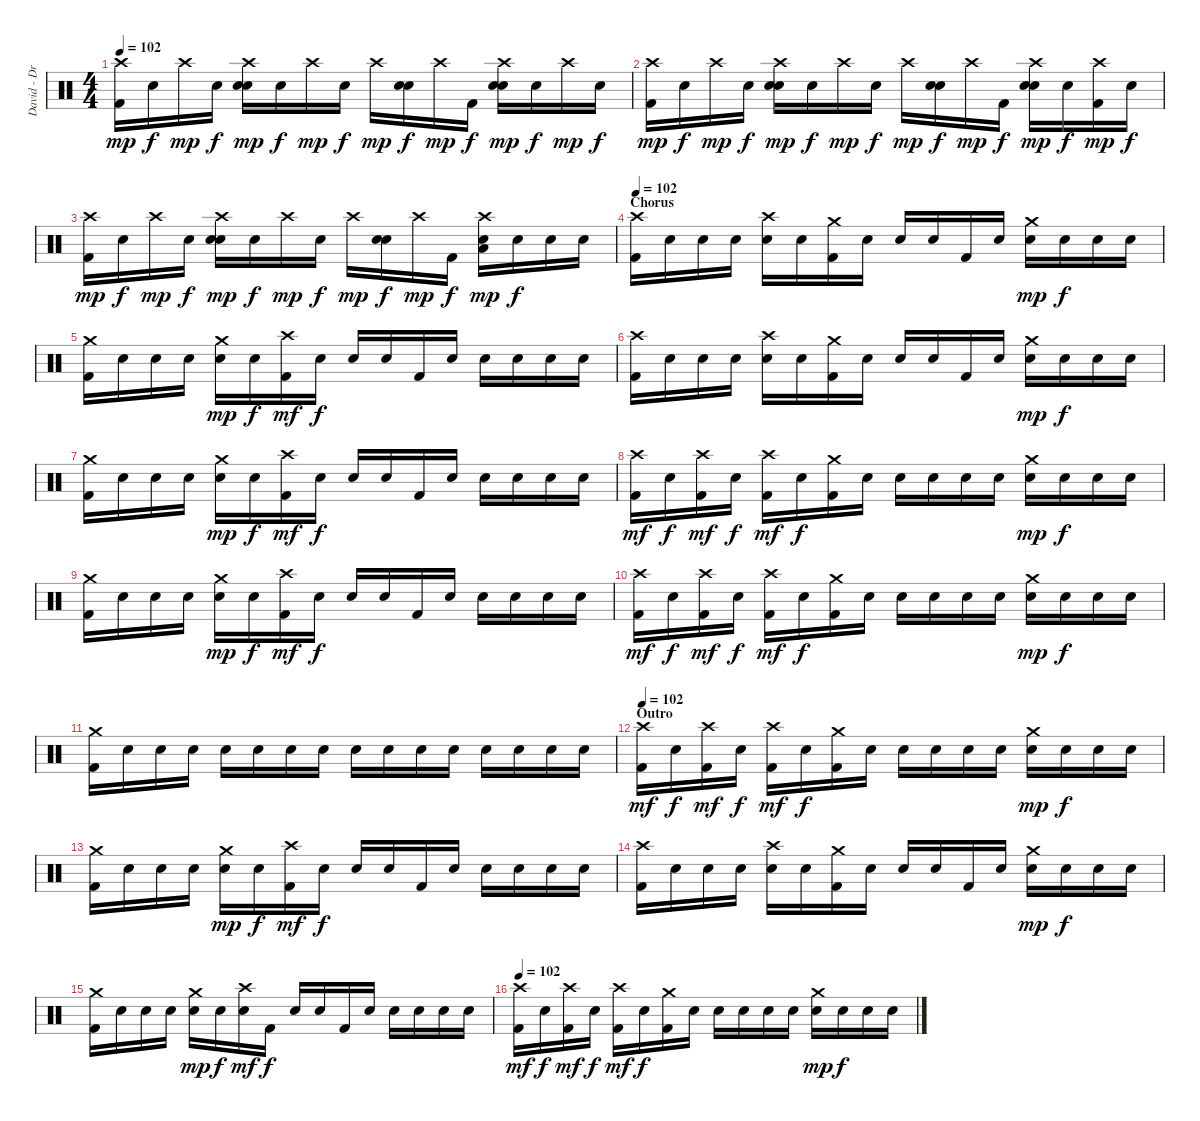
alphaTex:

\track ("David - Drums" "David - Dr") {instrument percussion}
\staff {score}
\articulation defaults
\ts (4 4)
\tempo 102
\clef neutral
\ks c
("Crash high (hit)" "Kick (hit) 2").16{dy mp} "Snare (hit)".16{dy f} "Crash high (hit)".16{dy mp} "Snare (hit)".16{dy f} ("Crash high (hit)" "Electric Snare (hit)" "Snare (hit) 2").16{dy mp} "Snare (hit)".16{dy f} "Crash high (hit)".16{dy mp} "Snare (hit)".16{dy f} "Crash high (hit)".16{dy mp} ("Electric Snare (hit)" "Snare (hit) 2").16{dy f} "Crash high (hit)".16{dy mp} "Kick (hit) 2".16{dy f} ("Crash high (hit)" "Electric Snare (hit)" "Snare (hit) 2").16{dy mp} "Snare (hit)".16{dy f} "Crash high (hit)".16{dy mp} "Snare (hit)".16{dy f} |
("Crash high (hit)" "Kick (hit) 2").16{dy mp} "Snare (hit)".16{dy f} "Crash high (hit)".16{dy mp} "Snare (hit)".16{dy f} ("Crash high (hit)" "Electric Snare (hit)" "Snare (hit) 2").16{dy mp} "Snare (hit)".16{dy f} "Crash high (hit)".16{dy mp} "Snare (hit)".16{dy f} "Crash high (hit)".16{dy mp} ("Electric Snare (hit)" "Snare (hit) 2").16{dy f} "Crash high (hit)".16{dy mp} "Kick (hit) 2".16{dy f} ("Crash high (hit)" "Electric Snare (hit)" "Snare (hit) 2").16{dy mp} "Snare (hit)".16{dy f} ("Crash high (hit)" "Kick (hit) 2").16{dy mp} "Snare (hit)".16{dy f} |
("Crash high (hit)" "Kick (hit) 2").16{dy mp} "Snare (hit)".16{dy f} "Crash high (hit)".16{dy mp} "Snare (hit)".16{dy f} ("Crash high (hit)" "Electric Snare (hit)" "Snare (hit) 2").16{dy mp} "Snare (hit)".16{dy f} "Crash high (hit)".16{dy mp} "Snare (hit)".16{dy f} "Crash high (hit)".16{dy mp} ("Electric Snare (hit)" "Snare (hit) 2").16{dy f} "Crash high (hit)".16{dy mp} "Kick (hit) 2".16{dy f} ("Crash high (hit)" "Low Floor Tom (hit)" "Snare (hit) 2").16{dy mp} "Snare (hit)".16{dy f} "Snare (hit)".16 "Snare (hit)".16 |
\section ("" "Chorus")
\tempo 102
("Crash high (hit)" "Kick (hit) 2").16{volume 16 balance 8} "Snare (hit)".16 "Snare (hit)".16 "Snare (hit)".16 ("Crash high (hit)" "Electric Snare (hit)").16 "Snare (hit)".16 ("Crash medium (hit)" "Kick (hit) 2").16 "Snare (hit)".16 "Snare (hit)".16 "Snare (hit)".16 "Kick (hit) 2".16 "Snare (hit)".16 ("Crash medium (hit)" "Electric Snare (hit)").16{dy mp} "Snare (hit)".16{dy f} "Snare (hit)".16 "Snare (hit)".16 |
("Crash medium (hit)" "Kick (hit) 2").16 "Snare (hit)".16 "Snare (hit)".16 "Snare (hit)".16 ("Crash medium (hit)" "Electric Snare (hit)").16{dy mp} "Snare (hit)".16{dy f} ("Crash high (hit)" "Kick (hit) 2").16{dy mf} "Snare (hit)".16{dy f} "Snare (hit)".16 "Snare (hit)".16 "Kick (hit) 2".16 "Snare (hit)".16 "Electric Snare (hit)".16 "Snare (hit)".16 "Snare (hit)".16 "Snare (hit)".16 |
("Crash high (hit)" "Kick (hit) 2").16 "Snare (hit)".16 "Snare (hit)".16 "Snare (hit)".16 ("Crash high (hit)" "Electric Snare (hit)").16 "Snare (hit)".16 ("Crash medium (hit)" "Kick (hit) 2").16 "Snare (hit)".16 "Snare (hit)".16 "Snare (hit)".16 "Kick (hit) 2".16 "Snare (hit)".16 ("Crash medium (hit)" "Electric Snare (hit)").16{dy mp} "Snare (hit)".16{dy f} "Snare (hit)".16 "Snare (hit)".16 |
("Crash medium (hit)" "Kick (hit) 2").16 "Snare (hit)".16 "Snare (hit)".16 "Snare (hit)".16 ("Crash medium (hit)" "Electric Snare (hit)").16{dy mp} "Snare (hit)".16{dy f} ("Crash high (hit)" "Kick (hit) 2").16{dy mf} "Snare (hit)".16{dy f} "Snare (hit)".16 "Snare (hit)".16 "Kick (hit) 2".16 "Snare (hit)".16 "Electric Snare (hit)".16 "Snare (hit)".16 "Snare (hit)".16 "Snare (hit)".16 |
("Crash high (hit)" "Kick (hit) 2").16{dy mf} "Snare (hit)".16{dy f} ("Crash high (hit)" "Kick (hit) 2").16{dy mf} "Snare (hit)".16{dy f} ("Crash high (hit)" "Kick (hit) 2").16{dy mf} "Snare (hit)".16{dy f} ("Crash medium (hit)" "Kick (hit) 2").16 "Snare (hit)".16 "Snare (hit)".16 "Snare (hit)".16 "Snare (hit)".16 "Snare (hit)".16 ("Crash medium (hit)" "Electric Snare (hit)").16{dy mp} "Snare (hit)".16{dy f} "Snare (hit)".16 "Snare (hit)".16 |
("Crash medium (hit)" "Kick (hit) 2").16 "Snare (hit)".16 "Snare (hit)".16 "Snare (hit)".16 ("Crash medium (hit)" "Electric Snare (hit)").16{dy mp} "Snare (hit)".16{dy f} ("Crash high (hit)" "Kick (hit) 2").16{dy mf} "Snare (hit)".16{dy f} "Snare (hit)".16 "Snare (hit)".16 "Kick (hit) 2".16 "Snare (hit)".16 "Electric Snare (hit)".16 "Snare (hit)".16 "Snare (hit)".16 "Snare (hit)".16 |
("Crash high (hit)" "Kick (hit) 2").16{dy mf} "Snare (hit)".16{dy f} ("Crash high (hit)" "Kick (hit) 2").16{dy mf} "Snare (hit)".16{dy f} ("Crash high (hit)" "Kick (hit) 2").16{dy mf} "Snare (hit)".16{dy f} ("Crash medium (hit)" "Kick (hit) 2").16 "Snare (hit)".16 "Snare (hit)".16 "Snare (hit)".16 "Snare (hit)".16 "Snare (hit)".16 ("Crash medium (hit)" "Electric Snare (hit)").16{dy mp} "Snare (hit)".16{dy f} "Snare (hit)".16 "Snare (hit)".16 |
("Crash medium (hit)" "Kick (hit) 2").16 "Snare (hit)".16 "Snare (hit)".16 "Snare (hit)".16 "Snare (hit)".16 "Snare (hit)".16 "Snare (hit)".16 "Snare (hit)".16 "Snare (hit)".16 "Snare (hit)".16 "Snare (hit)".16 "Snare (hit)".16 "Snare (hit)".16 "Snare (hit)".16 "Snare (hit)".16 "Snare (hit)".16 |
\section ("" "Outro")
\tempo 102
("Crash high (hit)" "Kick (hit) 2").16{dy mf volume 16 balance 8} "Snare (hit)".16{dy f} ("Crash high (hit)" "Kick (hit) 2").16{dy mf} "Snare (hit)".16{dy f} ("Crash high (hit)" "Kick (hit) 2").16{dy mf} "Snare (hit)".16{dy f} ("Crash medium (hit)" "Kick (hit) 2").16 "Snare (hit)".16 "Snare (hit)".16 "Snare (hit)".16 "Snare (hit)".16 "Snare (hit)".16 ("Crash medium (hit)" "Electric Snare (hit)").16{dy mp} "Snare (hit)".16{dy f} "Snare (hit)".16 "Snare (hit)".16 |
("Crash medium (hit)" "Kick (hit) 2").16 "Snare (hit)".16 "Snare (hit)".16 "Snare (hit)".16 ("Crash medium (hit)" "Electric Snare (hit)").16{dy mp} "Snare (hit)".16{dy f} ("Crash high (hit)" "Kick (hit) 2").16{dy mf} "Snare (hit)".16{dy f} "Snare (hit)".16 "Snare (hit)".16 "Kick (hit) 2".16 "Snare (hit)".16 "Electric Snare (hit)".16 "Snare (hit)".16 "Snare (hit)".16 "Snare (hit)".16 |
("Crash high (hit)" "Kick (hit) 2").16 "Snare (hit)".16 "Snare (hit)".16 "Snare (hit)".16 ("Crash high (hit)" "Electric Snare (hit)").16 "Snare (hit)".16 ("Crash medium (hit)" "Kick (hit) 2").16 "Snare (hit)".16 "Snare (hit)".16 "Snare (hit)".16 "Kick (hit) 2".16 "Snare (hit)".16 ("Crash medium (hit)" "Electric Snare (hit)").16{dy mp} "Snare (hit)".16{dy f} "Snare (hit)".16 "Snare (hit)".16 |
("Crash medium (hit)" "Kick (hit) 2").16 "Snare (hit)".16 "Snare (hit)".16 "Snare (hit)".16 ("Crash medium (hit)" "Electric Snare (hit)").16{dy mp} "Snare (hit)".16{dy f} ("Crash high (hit)" "Snare (hit) 2").16{dy mf} "Kick (hit) 2".16{dy f} "Snare (hit)".16 "Snare (hit)".16 "Kick (hit) 2".16 "Snare (hit)".16 "Electric Snare (hit)".16 "Snare (hit)".16 "Snare (hit)".16 "Snare (hit)".16 |
\tempo 102
("Crash high (hit)" "Kick (hit) 2").16{dy mf volume 16 balance 8} "Snare (hit)".16{dy f} ("Crash high (hit)" "Kick (hit) 2").16{dy mf} "Snare (hit)".16{dy f} ("Crash high (hit)" "Kick (hit) 2").16{dy mf} "Snare (hit)".16{dy f} ("Crash medium (hit)" "Kick (hit) 2").16 "Snare (hit)".16 "Snare (hit)".16 "Snare (hit)".16 "Snare (hit)".16 "Snare (hit)".16 ("Crash medium (hit)" "Electric Snare (hit)").16{dy mp} "Snare (hit)".16{dy f} "Snare (hit)".16 "Snare (hit)".16
